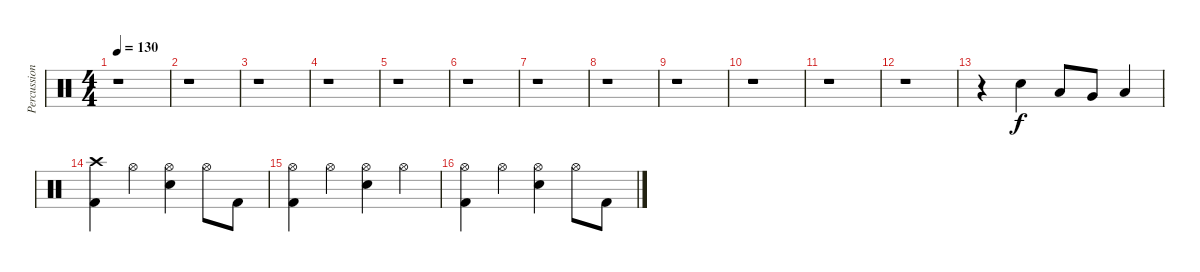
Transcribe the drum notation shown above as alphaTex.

\track ("Percussion" "Percussion") {instrument percussion}
\staff {score}
\articulation defaults
\ts (4 4)
\tempo 130
\clef neutral
\ks c
r.1{dy f} |
r.1 |
r.1 |
r.1 |
r.1 |
r.1 |
r.1 |
r.1 |
r.1 |
r.1 |
r.1 |
r.1 |
r.4 "Electric Snare (hit)".4 "Low Tom (hit)".8 "Very Low Tom (hit)".8 "Low Floor Tom (hit)".4 |
("Crash high (hit)" "Kick (hit) 2").4 "Hi-Hat (open)".4 ("Hi-Hat (open)" "Electric Snare (hit)").4 "Hi-Hat (open)".8 "Kick (hit) 2".8 |
("Hi-Hat (open)" "Kick (hit) 2").4 "Hi-Hat (open)".4 ("Hi-Hat (open)" "Electric Snare (hit)").4 "Hi-Hat (open)".4 |
("Hi-Hat (open)" "Kick (hit) 2").4 "Hi-Hat (open)".4 ("Hi-Hat (open)" "Electric Snare (hit)").4 "Hi-Hat (open)".8 "Kick (hit) 2".8
